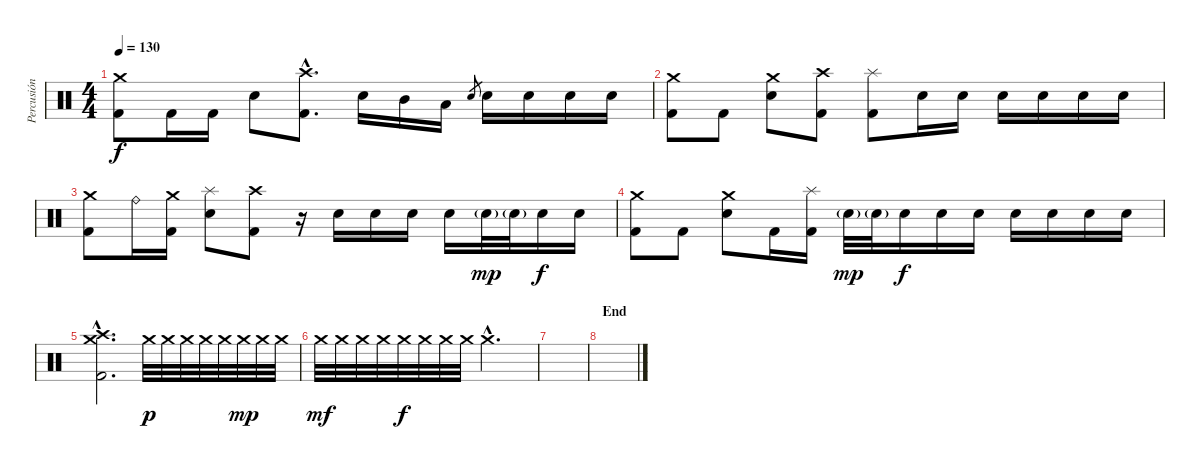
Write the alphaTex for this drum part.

\track ("Percusión" "Percusión") {instrument percussion}
\staff {score}
\articulation defaults
\ts (4 4)
\tempo 130
\clef neutral
\ks c
("Crash medium (hit)" "Kick (hit) 2").8{dy f} "Kick (hit) 2".16 "Kick (hit) 2".16 "Electric Snare (hit)".8 ("Crash high (hit)"{hac} "Kick (hit) 2"{hac}).8{d} "Electric Snare (hit)".16 "Mid Tom (hit)".16 "Low Tom (hit)".16 "Electric Snare (hit)".8{gr} "Electric Snare (hit)".16 "Electric Snare (hit)".16 "Electric Snare (hit)".16 "Electric Snare (hit)".16 |
("Crash medium (hit)" "Kick (hit) 2").8 "Kick (hit) 2".8 ("Crash medium (hit)" "Electric Snare (hit)").8 ("Crash high (hit)" "Kick (hit) 2").8 ("Splash (hit)" "Kick (hit) 2").8 "Electric Snare (hit)".16 "Electric Snare (hit)".16 "Electric Snare (hit)".16 "Electric Snare (hit)".16 "Electric Snare (hit)".16 "Electric Snare (hit)".16 |
("Crash medium (hit)" "Kick (hit) 2").8 "Ride (bell)".16 ("Crash medium (hit)" "Kick (hit) 2").16 ("Splash (hit)" "Electric Snare (hit)").8 ("Crash high (hit)" "Kick (hit) 2").8 r.16 "Electric Snare (hit)".16 "Electric Snare (hit)".16 "Electric Snare (hit)".16 "Electric Snare (hit)".16 "Electric Snare (hit)"{g}.32{dy mp} "Electric Snare (hit)"{g}.32 "Electric Snare (hit)".16{dy f} "Electric Snare (hit)".16 |
("Crash medium (hit)" "Kick (hit) 2").8 "Kick (hit) 2".8 ("Crash medium (hit)" "Electric Snare (hit)").8 "Kick (hit) 2".16 ("Splash (hit)" "Kick (hit) 2").16 "Electric Snare (hit)"{g}.32{dy mp} "Electric Snare (hit)"{g}.32 "Electric Snare (hit)".16{dy f} "Electric Snare (hit)".16 "Electric Snare (hit)".16 "Electric Snare (hit)".16 "Electric Snare (hit)".16 "Electric Snare (hit)".16 "Electric Snare (hit)".16 |
("Crash high (hit)"{hac} "Crash medium (hit)"{hac} "Kick (hit) 2"{hac}).2{d} "Crash medium (hit)".32{dy p} "Crash medium (hit)".32 "Crash medium (hit)".32 "Crash medium (hit)".32 "Crash medium (hit)".32 "Crash medium (hit)".32{dy mp} "Crash medium (hit)".32 "Crash medium (hit)".32 |
"Crash medium (hit)".32{dy mf} "Crash medium (hit)".32 "Crash medium (hit)".32 "Crash medium (hit)".32 "Crash medium (hit)".32{dy f} "Crash medium (hit)".32 "Crash medium (hit)".32 "Crash medium (hit)".32 "Crash medium (hit)"{hac}.2{d} |
|
\section ("" "End")
